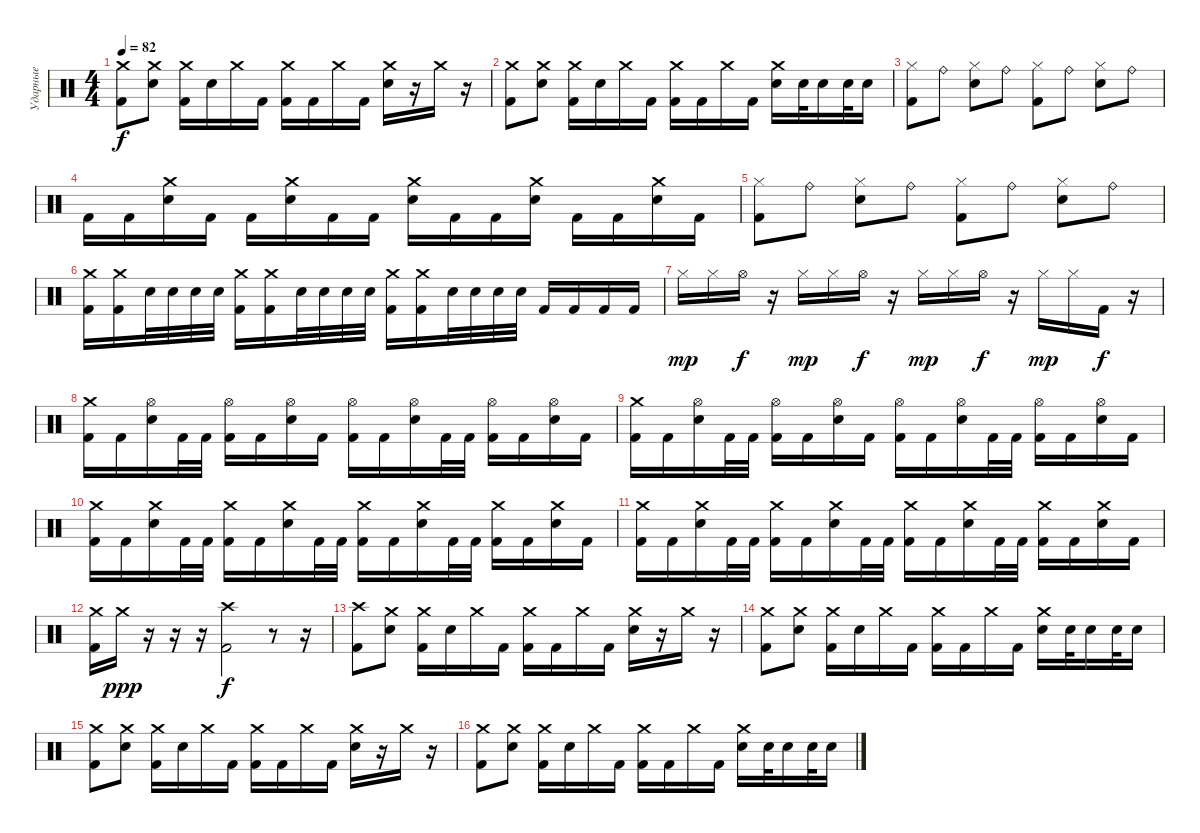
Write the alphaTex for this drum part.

\track ("Ударные" "Ударные") {instrument percussion}
\staff {score}
\articulation defaults
\ts (4 4)
\tempo 82
\clef neutral
\ks c
("Crash medium (hit)" "Kick (hit) 2").8{dy f} ("Crash medium (hit)" "Electric Snare (hit)").8 ("Crash medium (hit)" "Kick (hit) 2").16 "Electric Snare (hit)".16 "Crash medium (hit)".16 "Kick (hit) 2".16 ("Crash medium (hit)" "Kick (hit) 2").16 "Kick (hit) 2".16 "Crash medium (hit)".16 "Kick (hit) 2".16 ("Crash medium (hit)" "Electric Snare (hit)").16 r.16 "Crash medium (hit)".16 r.16 |
("Crash medium (hit)" "Kick (hit) 2").8 ("Crash medium (hit)" "Electric Snare (hit)").8 ("Crash medium (hit)" "Kick (hit) 2").16 "Electric Snare (hit)".16 "Crash medium (hit)".16 "Kick (hit) 2".16 ("Crash medium (hit)" "Kick (hit) 2").16 "Kick (hit) 2".16 "Crash medium (hit)".16 "Kick (hit) 2".16 ("Crash medium (hit)" "Electric Snare (hit)").16 "Electric Snare (hit)".32 "Electric Snare (hit)".16 "Electric Snare (hit)".32 "Electric Snare (hit)".16 |
("Hi-Hat (closed)" "Kick (hit) 2").8 "Ride (bell)".8 ("Hi-Hat (closed)" "Electric Snare (hit)").8 "Ride (bell)".8 ("Hi-Hat (closed)" "Kick (hit) 2").8 "Ride (bell)".8 ("Hi-Hat (closed)" "Electric Snare (hit)").8 "Ride (bell)".8 |
"Kick (hit) 2".16 "Kick (hit) 2".16 ("Crash medium (hit)" "Electric Snare (hit)").16 "Kick (hit) 2".16 "Kick (hit) 2".16 ("Crash medium (hit)" "Electric Snare (hit)").16 "Kick (hit) 2".16 "Kick (hit) 2".16 ("Crash medium (hit)" "Electric Snare (hit)").16 "Kick (hit) 2".16 "Kick (hit) 2".16 ("Crash medium (hit)" "Electric Snare (hit)").16 "Kick (hit) 2".16 "Kick (hit) 2".16 ("Crash medium (hit)" "Electric Snare (hit)").16 "Kick (hit) 2".16 |
("Hi-Hat (closed)" "Kick (hit) 2").8 "Ride (bell)".8 ("Hi-Hat (closed)" "Electric Snare (hit)").8 "Ride (bell)".8 ("Hi-Hat (closed)" "Kick (hit) 2").8 "Ride (bell)".8 ("Hi-Hat (closed)" "Electric Snare (hit)").8 "Ride (bell)".8 |
("Crash medium (hit)" "Kick (hit) 2").16 ("Crash medium (hit)" "Kick (hit) 2").16 "Electric Snare (hit)".32 "Electric Snare (hit)".32 "Electric Snare (hit)".32 "Electric Snare (hit)".32 ("Crash medium (hit)" "Kick (hit) 2").16 ("Crash medium (hit)" "Kick (hit) 2").16 "Electric Snare (hit)".32 "Electric Snare (hit)".32 "Electric Snare (hit)".32 "Electric Snare (hit)".32 ("Crash medium (hit)" "Kick (hit) 2").16 ("Crash medium (hit)" "Kick (hit) 2").16 "Electric Snare (hit)".32 "Electric Snare (hit)".32 "Electric Snare (hit)".32 "Electric Snare (hit)".32 "Kick (hit) 2".16 "Kick (hit) 2".16 "Kick (hit) 2".16 "Kick (hit) 2".16 |
"Hi-Hat (closed)".16{dy mp} "Hi-Hat (closed)".16 "Hi-Hat (open)".16{dy f} r.16 "Hi-Hat (closed)".16{dy mp} "Hi-Hat (closed)".16 "Hi-Hat (open)".16{dy f} r.16 "Hi-Hat (closed)".16{dy mp} "Hi-Hat (closed)".16 "Hi-Hat (open)".16{dy f} r.16 "Hi-Hat (closed)".16{dy mp} "Hi-Hat (closed)".16 "Kick (hit) 2".16{dy f} r.16 |
("Crash medium (hit)" "Kick (hit) 2").16 "Kick (hit) 2".16 ("Hi-Hat (open)" "Electric Snare (hit)").16 "Kick (hit) 2".32 "Kick (hit) 2".32 ("Hi-Hat (open)" "Kick (hit) 2").16 "Kick (hit) 2".16 ("Hi-Hat (open)" "Electric Snare (hit)").16 "Kick (hit) 2".16 ("Hi-Hat (open)" "Kick (hit) 2").16 "Kick (hit) 2".16 ("Hi-Hat (open)" "Electric Snare (hit)").16 "Kick (hit) 2".32 "Kick (hit) 2".32 ("Hi-Hat (open)" "Kick (hit) 2").16 "Kick (hit) 2".16 ("Hi-Hat (open)" "Electric Snare (hit)").16 "Kick (hit) 2".16 |
("Crash medium (hit)" "Kick (hit) 2").16 "Kick (hit) 2".16 ("Hi-Hat (open)" "Electric Snare (hit)").16 "Kick (hit) 2".32 "Kick (hit) 2".32 ("Hi-Hat (open)" "Kick (hit) 2").16 "Kick (hit) 2".16 ("Hi-Hat (open)" "Electric Snare (hit)").16 "Kick (hit) 2".16 ("Hi-Hat (open)" "Kick (hit) 2").16 "Kick (hit) 2".16 ("Hi-Hat (open)" "Electric Snare (hit)").16 "Kick (hit) 2".32 "Kick (hit) 2".32 ("Hi-Hat (open)" "Kick (hit) 2").16 "Kick (hit) 2".16 ("Hi-Hat (open)" "Electric Snare (hit)").16 "Kick (hit) 2".16 |
("Crash medium (hit)" "Kick (hit) 2").16 "Kick (hit) 2".16 ("Crash medium (hit)" "Electric Snare (hit)").16 "Kick (hit) 2".32 "Kick (hit) 2".32 ("Crash medium (hit)" "Kick (hit) 2").16 "Kick (hit) 2".16 ("Crash medium (hit)" "Electric Snare (hit)").16 "Kick (hit) 2".32 "Kick (hit) 2".32 ("Crash medium (hit)" "Kick (hit) 2").16 "Kick (hit) 2".16 ("Crash medium (hit)" "Electric Snare (hit)").16 "Kick (hit) 2".32 "Kick (hit) 2".32 ("Crash medium (hit)" "Kick (hit) 2").16 "Kick (hit) 2".16 ("Crash medium (hit)" "Electric Snare (hit)").16 "Kick (hit) 2".16 |
("Crash medium (hit)" "Kick (hit) 2").16 "Kick (hit) 2".16 ("Crash medium (hit)" "Electric Snare (hit)").16 "Kick (hit) 2".32 "Kick (hit) 2".32 ("Crash medium (hit)" "Kick (hit) 2").16 "Kick (hit) 2".16 ("Crash medium (hit)" "Electric Snare (hit)").16 "Kick (hit) 2".32 "Kick (hit) 2".32 ("Crash medium (hit)" "Kick (hit) 2").16 "Kick (hit) 2".16 ("Crash medium (hit)" "Electric Snare (hit)").16 "Kick (hit) 2".32 "Kick (hit) 2".32 ("Crash medium (hit)" "Kick (hit) 2").16 "Kick (hit) 2".16 ("Crash medium (hit)" "Electric Snare (hit)").16 "Kick (hit) 2".16 |
("Crash medium (hit)" "Kick (hit) 2").16 "Crash medium (hit)".16{dy ppp} r.16 r.16 r.16 ("Crash high (hit)" "Kick (hit) 2").2{dy f} r.8 r.16 |
("Crash high (hit)" "Kick (hit) 2").8 ("Crash medium (hit)" "Electric Snare (hit)").8 ("Crash medium (hit)" "Kick (hit) 2").16 "Electric Snare (hit)".16 "Crash medium (hit)".16 "Kick (hit) 2".16 ("Crash medium (hit)" "Kick (hit) 2").16 "Kick (hit) 2".16 "Crash medium (hit)".16 "Kick (hit) 2".16 ("Crash medium (hit)" "Electric Snare (hit)").16 r.16 "Crash medium (hit)".16 r.16 |
("Crash medium (hit)" "Kick (hit) 2").8 ("Crash medium (hit)" "Electric Snare (hit)").8 ("Crash medium (hit)" "Kick (hit) 2").16 "Electric Snare (hit)".16 "Crash medium (hit)".16 "Kick (hit) 2".16 ("Crash medium (hit)" "Kick (hit) 2").16 "Kick (hit) 2".16 "Crash medium (hit)".16 "Kick (hit) 2".16 ("Crash medium (hit)" "Electric Snare (hit)").16 "Electric Snare (hit)".32 "Electric Snare (hit)".16 "Electric Snare (hit)".32 "Electric Snare (hit)".16 |
("Crash medium (hit)" "Kick (hit) 2").8 ("Crash medium (hit)" "Electric Snare (hit)").8 ("Crash medium (hit)" "Kick (hit) 2").16 "Electric Snare (hit)".16 "Crash medium (hit)".16 "Kick (hit) 2".16 ("Crash medium (hit)" "Kick (hit) 2").16 "Kick (hit) 2".16 "Crash medium (hit)".16 "Kick (hit) 2".16 ("Crash medium (hit)" "Electric Snare (hit)").16 r.16 "Crash medium (hit)".16 r.16 |
("Crash medium (hit)" "Kick (hit) 2").8 ("Crash medium (hit)" "Electric Snare (hit)").8 ("Crash medium (hit)" "Kick (hit) 2").16 "Electric Snare (hit)".16 "Crash medium (hit)".16 "Kick (hit) 2".16 ("Crash medium (hit)" "Kick (hit) 2").16 "Kick (hit) 2".16 "Crash medium (hit)".16 "Kick (hit) 2".16 ("Crash medium (hit)" "Electric Snare (hit)").16 "Electric Snare (hit)".32 "Electric Snare (hit)".16 "Electric Snare (hit)".32 "Electric Snare (hit)".16
